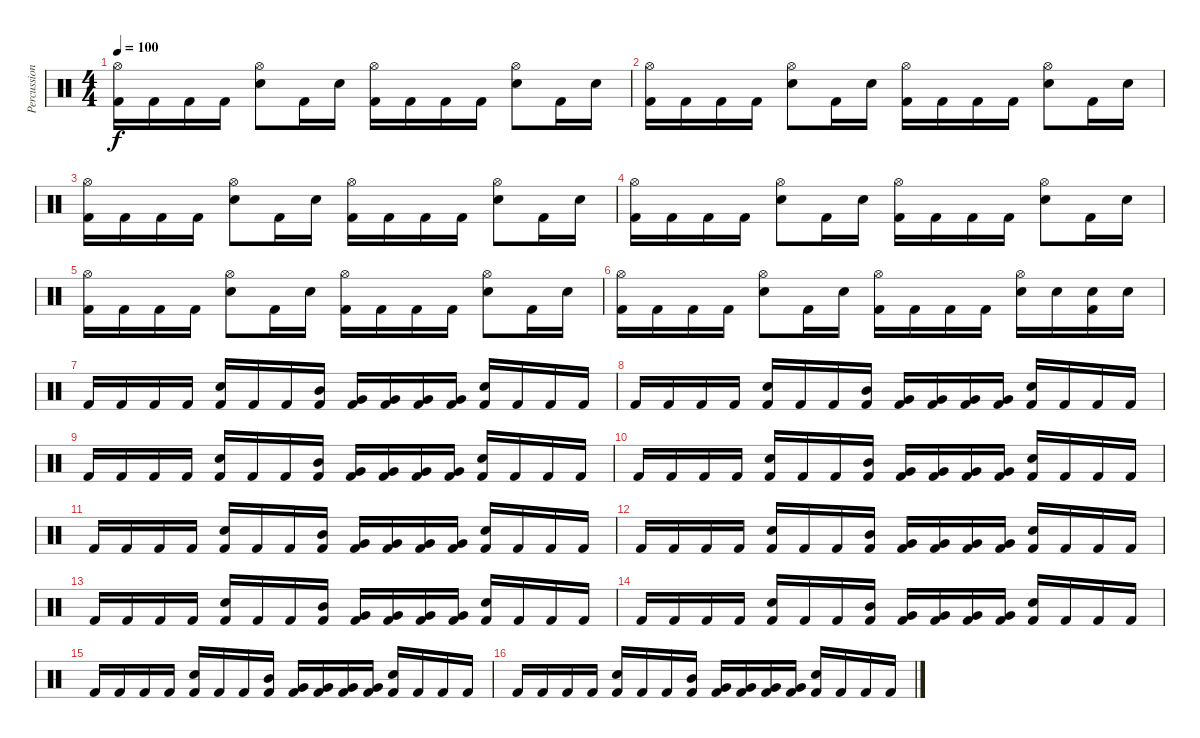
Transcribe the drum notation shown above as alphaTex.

\track ("Percussioni" "Percussion") {instrument percussion}
\staff {score}
\articulation defaults
\ts (4 4)
\tempo 100
\clef neutral
\ks c
("Hi-Hat (open)" "Kick (hit) 2").16{dy f} "Kick (hit) 2".16 "Kick (hit) 2".16 "Kick (hit) 2".16 ("Hi-Hat (open)" "Snare (hit) 2").8 "Kick (hit) 2".16 "Snare (hit) 2".16 ("Hi-Hat (open)" "Kick (hit) 2").16 "Kick (hit) 2".16 "Kick (hit) 2".16 "Kick (hit) 2".16 ("Hi-Hat (open)" "Snare (hit) 2").8 "Kick (hit) 2".16 "Snare (hit) 2".16 |
("Hi-Hat (open)" "Kick (hit) 2").16 "Kick (hit) 2".16 "Kick (hit) 2".16 "Kick (hit) 2".16 ("Hi-Hat (open)" "Snare (hit) 2").8 "Kick (hit) 2".16 "Snare (hit) 2".16 ("Hi-Hat (open)" "Kick (hit) 2").16 "Kick (hit) 2".16 "Kick (hit) 2".16 "Kick (hit) 2".16 ("Hi-Hat (open)" "Snare (hit) 2").8 "Kick (hit) 2".16 "Snare (hit) 2".16 |
("Hi-Hat (open)" "Kick (hit) 2").16 "Kick (hit) 2".16 "Kick (hit) 2".16 "Kick (hit) 2".16 ("Hi-Hat (open)" "Snare (hit) 2").8 "Kick (hit) 2".16 "Snare (hit) 2".16 ("Hi-Hat (open)" "Kick (hit) 2").16 "Kick (hit) 2".16 "Kick (hit) 2".16 "Kick (hit) 2".16 ("Hi-Hat (open)" "Snare (hit) 2").8 "Kick (hit) 2".16 "Snare (hit) 2".16 |
("Hi-Hat (open)" "Kick (hit) 2").16 "Kick (hit) 2".16 "Kick (hit) 2".16 "Kick (hit) 2".16 ("Hi-Hat (open)" "Snare (hit) 2").8 "Kick (hit) 2".16 "Snare (hit) 2".16 ("Hi-Hat (open)" "Kick (hit) 2").16 "Kick (hit) 2".16 "Kick (hit) 2".16 "Kick (hit) 2".16 ("Hi-Hat (open)" "Snare (hit) 2").8 "Kick (hit) 2".16 "Snare (hit) 2".16 |
("Hi-Hat (open)" "Kick (hit) 2").16 "Kick (hit) 2".16 "Kick (hit) 2".16 "Kick (hit) 2".16 ("Hi-Hat (open)" "Snare (hit) 2").8 "Kick (hit) 2".16 "Snare (hit) 2".16 ("Hi-Hat (open)" "Kick (hit) 2").16 "Kick (hit) 2".16 "Kick (hit) 2".16 "Kick (hit) 2".16 ("Hi-Hat (open)" "Snare (hit) 2").8 "Kick (hit) 2".16 "Snare (hit) 2".16 |
("Hi-Hat (open)" "Kick (hit) 2").16 "Kick (hit) 2".16 "Kick (hit) 2".16 "Kick (hit) 2".16 ("Hi-Hat (open)" "Snare (hit) 2").8 "Kick (hit) 2".16 "Snare (hit) 2".16 ("Hi-Hat (open)" "Kick (hit) 2").16 "Kick (hit) 2".16 "Kick (hit) 2".16 "Kick (hit) 2".16 ("Hi-Hat (open)" "Snare (hit) 2").16 "Snare (hit) 2".16 ("Snare (hit) 2" "Kick (hit) 2").16 "Snare (hit) 2".16 |
"Kick (hit) 2".16 "Kick (hit) 2".16 "Kick (hit) 2".16 "Kick (hit) 2".16 ("Snare (hit) 2" "Kick (hit) 2").16 "Kick (hit) 2".16 "Kick (hit) 2".16 ("Mid Tom (hit)" "Kick (hit) 2").16 ("Very Low Tom (hit)" "Kick (hit) 2").16 ("Very Low Tom (hit)" "Kick (hit) 2").16 ("Very Low Tom (hit)" "Kick (hit) 2").16 ("Very Low Tom (hit)" "Kick (hit) 2").16 ("Snare (hit) 2" "Kick (hit) 2").16 "Kick (hit) 2".16 "Kick (hit) 2".16 "Kick (hit) 2".16 |
"Kick (hit) 2".16 "Kick (hit) 2".16 "Kick (hit) 2".16 "Kick (hit) 2".16 ("Snare (hit) 2" "Kick (hit) 2").16 "Kick (hit) 2".16 "Kick (hit) 2".16 ("Mid Tom (hit)" "Kick (hit) 2").16 ("Very Low Tom (hit)" "Kick (hit) 2").16 ("Very Low Tom (hit)" "Kick (hit) 2").16 ("Very Low Tom (hit)" "Kick (hit) 2").16 ("Very Low Tom (hit)" "Kick (hit) 2").16 ("Snare (hit) 2" "Kick (hit) 2").16 "Kick (hit) 2".16 "Kick (hit) 2".16 "Kick (hit) 2".16 |
"Kick (hit) 2".16 "Kick (hit) 2".16 "Kick (hit) 2".16 "Kick (hit) 2".16 ("Snare (hit) 2" "Kick (hit) 2").16 "Kick (hit) 2".16 "Kick (hit) 2".16 ("Mid Tom (hit)" "Kick (hit) 2").16 ("Very Low Tom (hit)" "Kick (hit) 2").16 ("Very Low Tom (hit)" "Kick (hit) 2").16 ("Very Low Tom (hit)" "Kick (hit) 2").16 ("Very Low Tom (hit)" "Kick (hit) 2").16 ("Snare (hit) 2" "Kick (hit) 2").16 "Kick (hit) 2".16 "Kick (hit) 2".16 "Kick (hit) 2".16 |
"Kick (hit) 2".16 "Kick (hit) 2".16 "Kick (hit) 2".16 "Kick (hit) 2".16 ("Snare (hit) 2" "Kick (hit) 2").16 "Kick (hit) 2".16 "Kick (hit) 2".16 ("Mid Tom (hit)" "Kick (hit) 2").16 ("Very Low Tom (hit)" "Kick (hit) 2").16 ("Very Low Tom (hit)" "Kick (hit) 2").16 ("Very Low Tom (hit)" "Kick (hit) 2").16 ("Very Low Tom (hit)" "Kick (hit) 2").16 ("Snare (hit) 2" "Kick (hit) 2").16 "Kick (hit) 2".16 "Kick (hit) 2".16 "Kick (hit) 2".16 |
"Kick (hit) 2".16 "Kick (hit) 2".16 "Kick (hit) 2".16 "Kick (hit) 2".16 ("Snare (hit) 2" "Kick (hit) 2").16 "Kick (hit) 2".16 "Kick (hit) 2".16 ("Mid Tom (hit)" "Kick (hit) 2").16 ("Very Low Tom (hit)" "Kick (hit) 2").16 ("Very Low Tom (hit)" "Kick (hit) 2").16 ("Very Low Tom (hit)" "Kick (hit) 2").16 ("Very Low Tom (hit)" "Kick (hit) 2").16 ("Snare (hit) 2" "Kick (hit) 2").16 "Kick (hit) 2".16 "Kick (hit) 2".16 "Kick (hit) 2".16 |
"Kick (hit) 2".16 "Kick (hit) 2".16 "Kick (hit) 2".16 "Kick (hit) 2".16 ("Snare (hit) 2" "Kick (hit) 2").16 "Kick (hit) 2".16 "Kick (hit) 2".16 ("Mid Tom (hit)" "Kick (hit) 2").16 ("Very Low Tom (hit)" "Kick (hit) 2").16 ("Very Low Tom (hit)" "Kick (hit) 2").16 ("Very Low Tom (hit)" "Kick (hit) 2").16 ("Very Low Tom (hit)" "Kick (hit) 2").16 ("Snare (hit) 2" "Kick (hit) 2").16 "Kick (hit) 2".16 "Kick (hit) 2".16 "Kick (hit) 2".16 |
"Kick (hit) 2".16 "Kick (hit) 2".16 "Kick (hit) 2".16 "Kick (hit) 2".16 ("Snare (hit) 2" "Kick (hit) 2").16 "Kick (hit) 2".16 "Kick (hit) 2".16 ("Mid Tom (hit)" "Kick (hit) 2").16 ("Very Low Tom (hit)" "Kick (hit) 2").16 ("Very Low Tom (hit)" "Kick (hit) 2").16 ("Very Low Tom (hit)" "Kick (hit) 2").16 ("Very Low Tom (hit)" "Kick (hit) 2").16 ("Snare (hit) 2" "Kick (hit) 2").16 "Kick (hit) 2".16 "Kick (hit) 2".16 "Kick (hit) 2".16 |
"Kick (hit) 2".16 "Kick (hit) 2".16 "Kick (hit) 2".16 "Kick (hit) 2".16 ("Snare (hit) 2" "Kick (hit) 2").16 "Kick (hit) 2".16 "Kick (hit) 2".16 ("Mid Tom (hit)" "Kick (hit) 2").16 ("Very Low Tom (hit)" "Kick (hit) 2").16 ("Very Low Tom (hit)" "Kick (hit) 2").16 ("Very Low Tom (hit)" "Kick (hit) 2").16 ("Very Low Tom (hit)" "Kick (hit) 2").16 ("Snare (hit) 2" "Kick (hit) 2").16 "Kick (hit) 2".16 "Kick (hit) 2".16 "Kick (hit) 2".16 |
"Kick (hit) 2".16 "Kick (hit) 2".16 "Kick (hit) 2".16 "Kick (hit) 2".16 ("Snare (hit) 2" "Kick (hit) 2").16 "Kick (hit) 2".16 "Kick (hit) 2".16 ("Mid Tom (hit)" "Kick (hit) 2").16 ("Very Low Tom (hit)" "Kick (hit) 2").16 ("Very Low Tom (hit)" "Kick (hit) 2").16 ("Very Low Tom (hit)" "Kick (hit) 2").16 ("Very Low Tom (hit)" "Kick (hit) 2").16 ("Snare (hit) 2" "Kick (hit) 2").16 "Kick (hit) 2".16 "Kick (hit) 2".16 "Kick (hit) 2".16 |
"Kick (hit) 2".16 "Kick (hit) 2".16 "Kick (hit) 2".16 "Kick (hit) 2".16 ("Snare (hit) 2" "Kick (hit) 2").16 "Kick (hit) 2".16 "Kick (hit) 2".16 ("Mid Tom (hit)" "Kick (hit) 2").16 ("Very Low Tom (hit)" "Kick (hit) 2").16 ("Very Low Tom (hit)" "Kick (hit) 2").16 ("Very Low Tom (hit)" "Kick (hit) 2").16 ("Very Low Tom (hit)" "Kick (hit) 2").16 ("Snare (hit) 2" "Kick (hit) 2").16 "Kick (hit) 2".16 "Kick (hit) 2".16 "Kick (hit) 2".16
